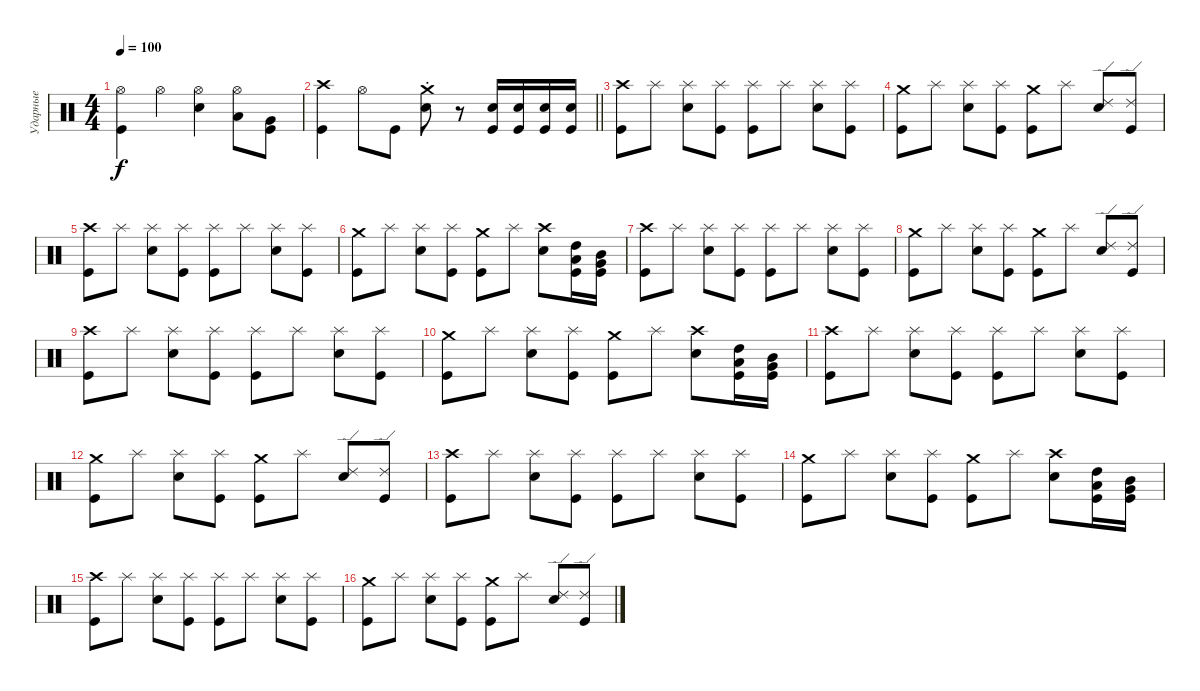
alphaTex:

\track ("Ударные" "Ударные") {instrument percussion}
\staff {score}
\articulation defaults
\ts (4 4)
\tempo 100
\clef neutral
\ks c
("Kick (hit)" "Hi-Hat (open)").4{dy f} "Hi-Hat (open)".4 ("Electric Snare (hit)" "Hi-Hat (open)").4 ("Low Tom (hit)" "Hi-Hat (open)").8 ("Very Low Tom (hit)" "Kick (hit)").8 |
\barLineRight lightlight
("Kick (hit)" "Crash high (hit)").4 "Hi-Hat (open)".8 "Kick (hit)".8 ("Electric Snare (hit)" "Crash medium (hit)"{st}).8 r.8 ("Kick (hit)" "Electric Snare (hit)").16 ("Kick (hit)" "Electric Snare (hit)").16 ("Kick (hit)" "Electric Snare (hit)").16 ("Kick (hit)" "Electric Snare (hit)").16 |
\section ("" " ")
("Kick (hit)" "Crash high (hit)").8 "Splash (hit)".8 ("Electric Snare (hit)" "Splash (hit)").8 ("Kick (hit)" "Splash (hit)").8 ("Kick (hit)" "Splash (hit)").8 "Splash (hit)".8 ("Electric Snare (hit)" "Splash (hit)").8 ("Kick (hit)" "Splash (hit)").8 |
("Kick (hit)" "Crash medium (hit)").8 "Splash (hit)".8 ("Electric Snare (hit)" "Splash (hit)").8 ("Kick (hit)" "Splash (hit)").8 ("Kick (hit)" "Crash medium (hit)").8 "Splash (hit)".8 ("Electric Snare (hit)" "Ride (edge) 2").8 ("Kick (hit)" "Ride (edge) 2").8 |
("Kick (hit)" "Crash high (hit)").8 "Splash (hit)".8 ("Electric Snare (hit)" "Splash (hit)").8 ("Kick (hit)" "Splash (hit)").8 ("Kick (hit)" "Splash (hit)").8 "Splash (hit)".8 ("Electric Snare (hit)" "Splash (hit)").8 ("Kick (hit)" "Splash (hit)").8 |
("Kick (hit)" "Crash medium (hit)").8 "Splash (hit)".8 ("Electric Snare (hit)" "Splash (hit)").8 ("Kick (hit)" "Splash (hit)").8 ("Kick (hit)" "Crash medium (hit)").8 "Splash (hit)".8 ("Electric Snare (hit)" "Crash high (hit)").8 ("Kick (hit)" "High Tom (hit)" "Low Tom (hit)").16 ("Kick (hit)" "Mid Tom (hit)" "Very Low Tom (hit)").16 |
("Kick (hit)" "Crash high (hit)").8 "Splash (hit)".8 ("Electric Snare (hit)" "Splash (hit)").8 ("Kick (hit)" "Splash (hit)").8 ("Kick (hit)" "Splash (hit)").8 "Splash (hit)".8 ("Electric Snare (hit)" "Splash (hit)").8 ("Kick (hit)" "Splash (hit)").8 |
("Kick (hit)" "Crash medium (hit)").8 "Splash (hit)".8 ("Electric Snare (hit)" "Splash (hit)").8 ("Kick (hit)" "Splash (hit)").8 ("Kick (hit)" "Crash medium (hit)").8 "Splash (hit)".8 ("Electric Snare (hit)" "Ride (edge) 2").8 ("Kick (hit)" "Ride (edge) 2").8 |
("Kick (hit)" "Crash high (hit)").8 "Splash (hit)".8 ("Electric Snare (hit)" "Splash (hit)").8 ("Kick (hit)" "Splash (hit)").8 ("Kick (hit)" "Splash (hit)").8 "Splash (hit)".8 ("Electric Snare (hit)" "Splash (hit)").8 ("Kick (hit)" "Splash (hit)").8 |
("Kick (hit)" "Crash medium (hit)").8 "Splash (hit)".8 ("Electric Snare (hit)" "Splash (hit)").8 ("Kick (hit)" "Splash (hit)").8 ("Kick (hit)" "Crash medium (hit)").8 "Splash (hit)".8 ("Electric Snare (hit)" "Crash high (hit)").8 ("Kick (hit)" "High Tom (hit)" "Low Tom (hit)").16 ("Kick (hit)" "Mid Tom (hit)" "Very Low Tom (hit)").16 |
("Kick (hit)" "Crash high (hit)").8 "Splash (hit)".8 ("Electric Snare (hit)" "Splash (hit)").8 ("Kick (hit)" "Splash (hit)").8 ("Kick (hit)" "Splash (hit)").8 "Splash (hit)".8 ("Electric Snare (hit)" "Splash (hit)").8 ("Kick (hit)" "Splash (hit)").8 |
("Kick (hit)" "Crash medium (hit)").8 "Splash (hit)".8 ("Electric Snare (hit)" "Splash (hit)").8 ("Kick (hit)" "Splash (hit)").8 ("Kick (hit)" "Crash medium (hit)").8 "Splash (hit)".8 ("Electric Snare (hit)" "Ride (edge) 2").8 ("Kick (hit)" "Ride (edge) 2").8 |
("Kick (hit)" "Crash high (hit)").8 "Splash (hit)".8 ("Electric Snare (hit)" "Splash (hit)").8 ("Kick (hit)" "Splash (hit)").8 ("Kick (hit)" "Splash (hit)").8 "Splash (hit)".8 ("Electric Snare (hit)" "Splash (hit)").8 ("Kick (hit)" "Splash (hit)").8 |
("Kick (hit)" "Crash medium (hit)").8 "Splash (hit)".8 ("Electric Snare (hit)" "Splash (hit)").8 ("Kick (hit)" "Splash (hit)").8 ("Kick (hit)" "Crash medium (hit)").8 "Splash (hit)".8 ("Electric Snare (hit)" "Crash high (hit)").8 ("Kick (hit)" "High Tom (hit)" "Low Tom (hit)").16 ("Kick (hit)" "Mid Tom (hit)" "Very Low Tom (hit)").16 |
("Kick (hit)" "Crash high (hit)").8 "Splash (hit)".8 ("Electric Snare (hit)" "Splash (hit)").8 ("Kick (hit)" "Splash (hit)").8 ("Kick (hit)" "Splash (hit)").8 "Splash (hit)".8 ("Electric Snare (hit)" "Splash (hit)").8 ("Kick (hit)" "Splash (hit)").8 |
("Kick (hit)" "Crash medium (hit)").8 "Splash (hit)".8 ("Electric Snare (hit)" "Splash (hit)").8 ("Kick (hit)" "Splash (hit)").8 ("Kick (hit)" "Crash medium (hit)").8 "Splash (hit)".8 ("Electric Snare (hit)" "Ride (edge) 2").8 ("Kick (hit)" "Ride (edge) 2").8
